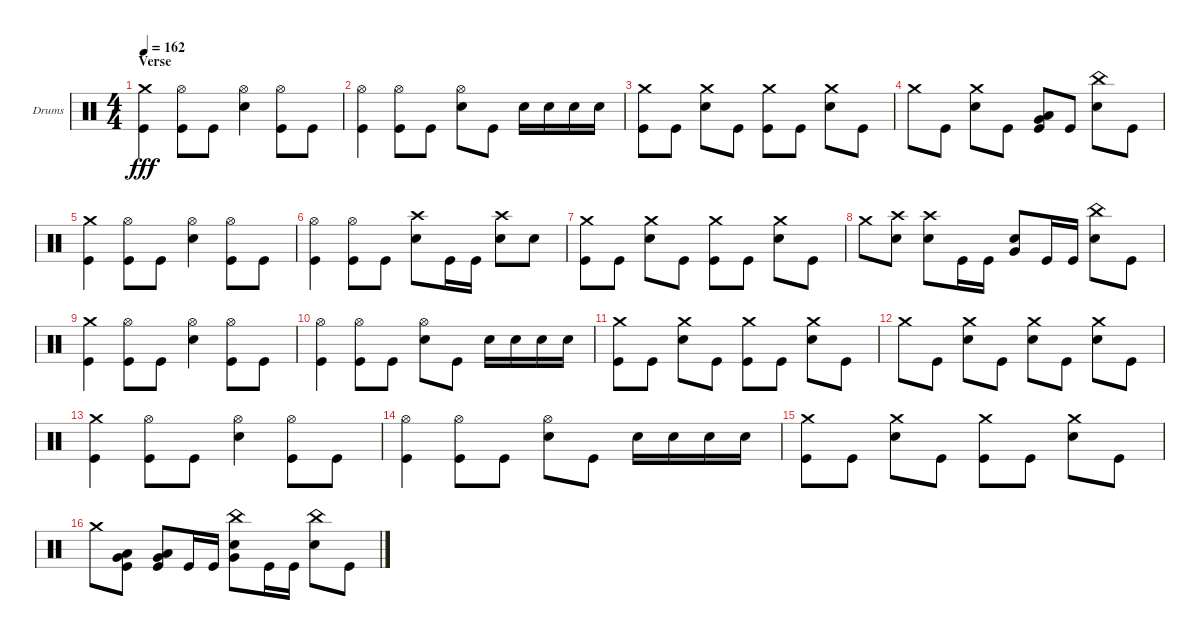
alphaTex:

\bracketExtendMode groupsimilarinstruments
\firstSystemTrackNameOrientation horizontal
\otherSystemsTrackNameOrientation horizontal
\track ("Drumkit" "Drums") {instrument percussion}
\staff {score}
\articulation defaults
\ts (4 4)
\section ("" "Verse")
\tempo 162
\clef neutral
\ks c
("Crash medium (hit)" "Kick (hit)").4{dy fff} ("Hi-Hat (open)" "Kick (hit)").8 "Kick (hit)".8 ("Hi-Hat (open)" "Snare (hit) 2").4 ("Hi-Hat (open)" "Kick (hit)").8 "Kick (hit)".8 |
("Hi-Hat (open)" "Kick (hit)").4 ("Hi-Hat (open)" "Kick (hit)").8 "Kick (hit)".8 ("Hi-Hat (open)" "Snare (hit) 2").8 "Kick (hit)".8 "Snare (hit) 2".16 "Snare (hit) 2".16 "Snare (hit) 2".16 "Snare (hit) 2".16 |
("Kick (hit)" "Crash medium (hit)").8 "Kick (hit)".8 ("Snare (hit) 2" "Crash medium (hit)").8 "Kick (hit)".8 ("Kick (hit)" "Crash medium (hit)").8 "Kick (hit)".8 ("Snare (hit) 2" "Crash medium (hit)").8 "Kick (hit)".8 |
"Crash medium (hit)".8 "Kick (hit)".8 ("Snare (hit) 2" "Crash medium (hit)").8 "Kick (hit)".8 ("Kick (hit)" "Very Low Tom (hit)" "Low Tom (hit)").8 "Kick (hit)".8 ("Snare (hit) 2" "China (hit)").8 "Kick (hit)".8 |
("Crash medium (hit)" "Kick (hit)").4 ("Hi-Hat (open)" "Kick (hit)").8 "Kick (hit)".8 ("Hi-Hat (open)" "Snare (hit) 2").4 ("Hi-Hat (open)" "Kick (hit)").8 "Kick (hit)".8 |
("Hi-Hat (open)" "Kick (hit)").4 ("Hi-Hat (open)" "Kick (hit)").8 "Kick (hit)".8 ("Snare (hit) 2" "Crash high (hit)").8 "Kick (hit)".16 "Kick (hit)".16 ("Snare (hit) 2" "Crash high (hit)").8 "Snare (hit) 2".8 |
("Kick (hit)" "Crash medium (hit)").8 "Kick (hit)".8 ("Snare (hit) 2" "Crash medium (hit)").8 "Kick (hit)".8 ("Kick (hit)" "Crash medium (hit)").8 "Kick (hit)".8 ("Snare (hit) 2" "Crash medium (hit)").8 "Kick (hit)".8 |
"Crash medium (hit)".8 ("Snare (hit) 2" "Crash high (hit)").8 ("Snare (hit) 2" "Crash high (hit)").8 "Kick (hit)".16 "Kick (hit)".16 ("Snare (hit) 2" "Very Low Tom (hit)").8 "Kick (hit)".16 "Kick (hit)".16 ("Snare (hit) 2" "China (hit)").8 "Kick (hit)".8 |
("Crash medium (hit)" "Kick (hit)").4 ("Hi-Hat (open)" "Kick (hit)").8 "Kick (hit)".8 ("Hi-Hat (open)" "Snare (hit) 2").4 ("Hi-Hat (open)" "Kick (hit)").8 "Kick (hit)".8 |
("Hi-Hat (open)" "Kick (hit)").4 ("Hi-Hat (open)" "Kick (hit)").8 "Kick (hit)".8 ("Hi-Hat (open)" "Snare (hit) 2").8 "Kick (hit)".8 "Snare (hit) 2".16 "Snare (hit) 2".16 "Snare (hit) 2".16 "Snare (hit) 2".16 |
("Kick (hit)" "Crash medium (hit)").8 "Kick (hit)".8 ("Snare (hit) 2" "Crash medium (hit)").8 "Kick (hit)".8 ("Kick (hit)" "Crash medium (hit)").8 "Kick (hit)".8 ("Snare (hit) 2" "Crash medium (hit)").8 "Kick (hit)".8 |
"Crash medium (hit)".8 "Kick (hit)".8 ("Snare (hit) 2" "Crash medium (hit)").8 "Kick (hit)".8 ("Snare (hit) 2" "Crash medium (hit)").8 "Kick (hit)".8 ("Snare (hit) 2" "Crash medium (hit)").8 "Kick (hit)".8 |
("Crash medium (hit)" "Kick (hit)").4 ("Hi-Hat (open)" "Kick (hit)").8 "Kick (hit)".8 ("Hi-Hat (open)" "Snare (hit) 2").4 ("Hi-Hat (open)" "Kick (hit)").8 "Kick (hit)".8 |
("Hi-Hat (open)" "Kick (hit)").4 ("Hi-Hat (open)" "Kick (hit)").8 "Kick (hit)".8 ("Hi-Hat (open)" "Snare (hit) 2").8 "Kick (hit)".8 "Snare (hit) 2".16 "Snare (hit) 2".16 "Snare (hit) 2".16 "Snare (hit) 2".16 |
("Kick (hit)" "Crash medium (hit)").8 "Kick (hit)".8 ("Snare (hit) 2" "Crash medium (hit)").8 "Kick (hit)".8 ("Kick (hit)" "Crash medium (hit)").8 "Kick (hit)".8 ("Snare (hit) 2" "Crash medium (hit)").8 "Kick (hit)".8 |
"Crash medium (hit)".8 ("Kick (hit)" "Very Low Tom (hit)" "Low Tom (hit)").8 ("Kick (hit)" "Low Tom (hit)" "Very Low Tom (hit)").8 "Kick (hit)".16 "Kick (hit)".16 ("Snare (hit) 2" "Very Low Tom (hit)" "China (hit)").8 "Kick (hit)".16 "Kick (hit)".16 ("Snare (hit) 2" "China (hit)").8 "Kick (hit)".8
